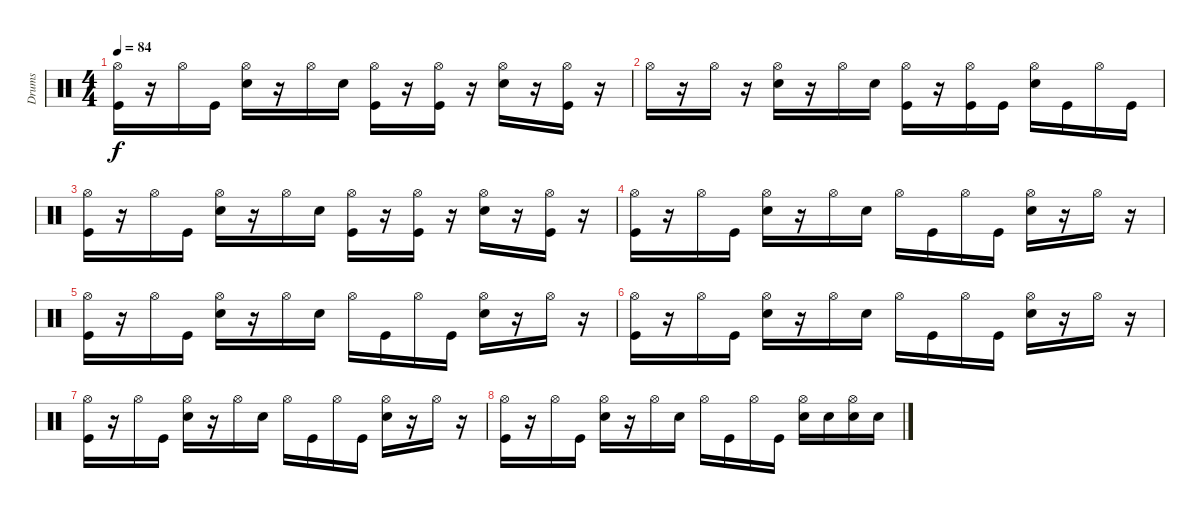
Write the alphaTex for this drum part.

\track ("Drums" "Drums") {instrument percussion}
\staff {score}
\articulation defaults
\ts (4 4)
\tempo 84
\clef neutral
\ks c
("Hi-Hat (open)" "Kick (hit)").16{dy f} r.16 "Hi-Hat (open)".16 "Kick (hit)".16 ("Hi-Hat (open)" "Snare (hit) 2").16 r.16 "Hi-Hat (open)".16 "Snare (hit) 2".16 ("Hi-Hat (open)" "Kick (hit)").16 r.16 ("Hi-Hat (open)" "Kick (hit)").16 r.16 ("Hi-Hat (open)" "Snare (hit) 2").16 r.16 ("Hi-Hat (open)" "Kick (hit)").16 r.16 |
"Hi-Hat (open)".16 r.16 "Hi-Hat (open)".16 r.16 ("Hi-Hat (open)" "Snare (hit) 2").16 r.16 "Hi-Hat (open)".16 "Snare (hit) 2".16 ("Hi-Hat (open)" "Kick (hit)").16 r.16 ("Hi-Hat (open)" "Kick (hit)").16 "Kick (hit)".16 ("Hi-Hat (open)" "Snare (hit) 2").16 "Kick (hit)".16 "Hi-Hat (open)".16 "Kick (hit)".16 |
("Hi-Hat (open)" "Kick (hit)").16 r.16 "Hi-Hat (open)".16 "Kick (hit)".16 ("Hi-Hat (open)" "Snare (hit) 2").16 r.16 "Hi-Hat (open)".16 "Snare (hit) 2".16 ("Hi-Hat (open)" "Kick (hit)").16 r.16 ("Hi-Hat (open)" "Kick (hit)").16 r.16 ("Hi-Hat (open)" "Snare (hit) 2").16 r.16 ("Hi-Hat (open)" "Kick (hit)").16 r.16 |
("Hi-Hat (open)" "Kick (hit)").16 r.16 "Hi-Hat (open)".16 "Kick (hit)".16 ("Hi-Hat (open)" "Snare (hit) 2").16 r.16 "Hi-Hat (open)".16 "Snare (hit) 2".16 "Hi-Hat (open)".16 "Kick (hit)".16 "Hi-Hat (open)".16 "Kick (hit)".16 ("Hi-Hat (open)" "Snare (hit) 2").16 r.16 "Hi-Hat (open)".16 r.16 |
("Hi-Hat (open)" "Kick (hit)").16 r.16 "Hi-Hat (open)".16 "Kick (hit)".16 ("Hi-Hat (open)" "Snare (hit) 2").16 r.16 "Hi-Hat (open)".16 "Snare (hit) 2".16 "Hi-Hat (open)".16 "Kick (hit)".16 "Hi-Hat (open)".16 "Kick (hit)".16 ("Hi-Hat (open)" "Snare (hit) 2").16 r.16 "Hi-Hat (open)".16 r.16 |
("Hi-Hat (open)" "Kick (hit)").16 r.16 "Hi-Hat (open)".16 "Kick (hit)".16 ("Hi-Hat (open)" "Snare (hit) 2").16 r.16 "Hi-Hat (open)".16 "Snare (hit) 2".16 "Hi-Hat (open)".16 "Kick (hit)".16 "Hi-Hat (open)".16 "Kick (hit)".16 ("Hi-Hat (open)" "Snare (hit) 2").16 r.16 "Hi-Hat (open)".16 r.16 |
("Hi-Hat (open)" "Kick (hit)").16 r.16 "Hi-Hat (open)".16 "Kick (hit)".16 ("Hi-Hat (open)" "Snare (hit) 2").16 r.16 "Hi-Hat (open)".16 "Snare (hit) 2".16 "Hi-Hat (open)".16 "Kick (hit)".16 "Hi-Hat (open)".16 "Kick (hit)".16 ("Hi-Hat (open)" "Snare (hit) 2").16 r.16 "Hi-Hat (open)".16 r.16 |
("Hi-Hat (open)" "Kick (hit)").16 r.16 "Hi-Hat (open)".16 "Kick (hit)".16 ("Hi-Hat (open)" "Snare (hit) 2").16 r.16 "Hi-Hat (open)".16 "Snare (hit) 2".16 "Hi-Hat (open)".16 "Kick (hit)".16 "Hi-Hat (open)".16 "Kick (hit)".16 ("Hi-Hat (open)" "Snare (hit) 2").16 "Snare (hit) 2".16 ("Hi-Hat (open)" "Snare (hit) 2").16 "Snare (hit) 2".16
